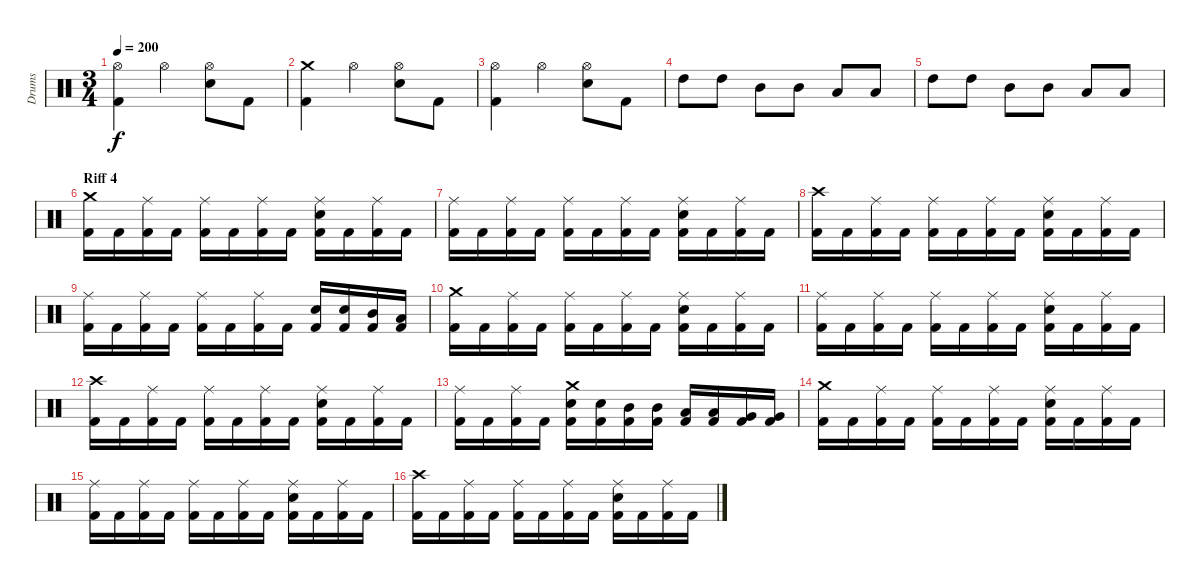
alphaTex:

\track ("Drums" "Drums") {instrument percussion}
\staff {score}
\articulation defaults
\ts (3 4)
\tempo 200
\clef neutral
\ks c
("Hi-Hat (open)" "Kick (hit) 2").4{dy f} "Hi-Hat (open)".4 ("Hi-Hat (open)" "Electric Snare (hit)").8 "Kick (hit) 2".8 |
("Crash medium (hit)" "Kick (hit) 2").4 "Hi-Hat (open)".4 ("Hi-Hat (open)" "Electric Snare (hit)").8 "Kick (hit) 2".8 |
("Hi-Hat (open)" "Kick (hit) 2").4 "Hi-Hat (open)".4 ("Hi-Hat (open)" "Electric Snare (hit)").8 "Kick (hit) 2".8 |
"High Tom (hit)".8 "High Tom (hit)".8 "Mid Tom (hit)".8 "Mid Tom (hit)".8 "Low Tom (hit)".8 "Low Tom (hit)".8 |
"High Tom (hit)".8 "High Tom (hit)".8 "Mid Tom (hit)".8 "Mid Tom (hit)".8 "Low Tom (hit)".8 "Low Tom (hit)".8 |
\section ("" "Riff 4")
("Crash medium (hit)" "Kick (hit) 2").16 "Kick (hit) 2".16 ("Ride (middle)" "Kick (hit) 2").16 "Kick (hit) 2".16 ("Ride (middle)" "Kick (hit) 2").16 "Kick (hit) 2".16 ("Ride (middle)" "Kick (hit) 2").16 "Kick (hit) 2".16 ("Ride (middle)" "Electric Snare (hit)" "Kick (hit) 2").16 "Kick (hit) 2".16 ("Ride (middle)" "Kick (hit) 2").16 "Kick (hit) 2".16 |
("Ride (middle)" "Kick (hit) 2").16 "Kick (hit) 2".16 ("Ride (middle)" "Kick (hit) 2").16 "Kick (hit) 2".16 ("Ride (middle)" "Kick (hit) 2").16 "Kick (hit) 2".16 ("Ride (middle)" "Kick (hit) 2").16 "Kick (hit) 2".16 ("Ride (middle)" "Electric Snare (hit)" "Kick (hit) 2").16 "Kick (hit) 2".16 ("Ride (middle)" "Kick (hit) 2").16 "Kick (hit) 2".16 |
("Crash high (hit)" "Kick (hit) 2").16 "Kick (hit) 2".16 ("Ride (middle)" "Kick (hit) 2").16 "Kick (hit) 2".16 ("Ride (middle)" "Kick (hit) 2").16 "Kick (hit) 2".16 ("Ride (middle)" "Kick (hit) 2").16 "Kick (hit) 2".16 ("Ride (middle)" "Electric Snare (hit)" "Kick (hit) 2").16 "Kick (hit) 2".16 ("Ride (middle)" "Kick (hit) 2").16 "Kick (hit) 2".16 |
("Ride (middle)" "Kick (hit) 2").16 "Kick (hit) 2".16 ("Ride (middle)" "Kick (hit) 2").16 "Kick (hit) 2".16 ("Ride (middle)" "Kick (hit) 2").16 "Kick (hit) 2".16 ("Ride (middle)" "Kick (hit) 2").16 "Kick (hit) 2".16 ("Electric Snare (hit)" "Kick (hit) 2").16 ("Electric Snare (hit)" "Kick (hit) 2").16 ("Mid Tom (hit)" "Kick (hit) 2").16 ("Low Tom (hit)" "Kick (hit) 2").16 |
("Crash medium (hit)" "Kick (hit) 2").16 "Kick (hit) 2".16 ("Ride (middle)" "Kick (hit) 2").16 "Kick (hit) 2".16 ("Ride (middle)" "Kick (hit) 2").16 "Kick (hit) 2".16 ("Ride (middle)" "Kick (hit) 2").16 "Kick (hit) 2".16 ("Ride (middle)" "Electric Snare (hit)" "Kick (hit) 2").16 "Kick (hit) 2".16 ("Ride (middle)" "Kick (hit) 2").16 "Kick (hit) 2".16 |
("Ride (middle)" "Kick (hit) 2").16 "Kick (hit) 2".16 ("Ride (middle)" "Kick (hit) 2").16 "Kick (hit) 2".16 ("Ride (middle)" "Kick (hit) 2").16 "Kick (hit) 2".16 ("Ride (middle)" "Kick (hit) 2").16 "Kick (hit) 2".16 ("Ride (middle)" "Electric Snare (hit)" "Kick (hit) 2").16 "Kick (hit) 2".16 ("Ride (middle)" "Kick (hit) 2").16 "Kick (hit) 2".16 |
("Crash high (hit)" "Kick (hit) 2").16 "Kick (hit) 2".16 ("Ride (middle)" "Kick (hit) 2").16 "Kick (hit) 2".16 ("Ride (middle)" "Kick (hit) 2").16 "Kick (hit) 2".16 ("Ride (middle)" "Kick (hit) 2").16 "Kick (hit) 2".16 ("Ride (middle)" "Electric Snare (hit)" "Kick (hit) 2").16 "Kick (hit) 2".16 ("Ride (middle)" "Kick (hit) 2").16 "Kick (hit) 2".16 |
("Ride (middle)" "Kick (hit) 2").16 "Kick (hit) 2".16 ("Ride (middle)" "Kick (hit) 2").16 "Kick (hit) 2".16 ("Crash medium (hit)" "Electric Snare (hit)" "Kick (hit) 2").16 ("Electric Snare (hit)" "Kick (hit) 2").16 ("Mid Tom (hit)" "Kick (hit) 2").16 ("Mid Tom (hit)" "Kick (hit) 2").16 ("Low Tom (hit)" "Kick (hit) 2").16 ("Low Tom (hit)" "Kick (hit) 2").16 ("Very Low Tom (hit)" "Kick (hit) 2").16 ("Very Low Tom (hit)" "Kick (hit) 2").16 |
("Crash medium (hit)" "Kick (hit) 2").16 "Kick (hit) 2".16 ("Ride (middle)" "Kick (hit) 2").16 "Kick (hit) 2".16 ("Ride (middle)" "Kick (hit) 2").16 "Kick (hit) 2".16 ("Ride (middle)" "Kick (hit) 2").16 "Kick (hit) 2".16 ("Ride (middle)" "Electric Snare (hit)" "Kick (hit) 2").16 "Kick (hit) 2".16 ("Ride (middle)" "Kick (hit) 2").16 "Kick (hit) 2".16 |
("Ride (middle)" "Kick (hit) 2").16 "Kick (hit) 2".16 ("Ride (middle)" "Kick (hit) 2").16 "Kick (hit) 2".16 ("Ride (middle)" "Kick (hit) 2").16 "Kick (hit) 2".16 ("Ride (middle)" "Kick (hit) 2").16 "Kick (hit) 2".16 ("Ride (middle)" "Electric Snare (hit)" "Kick (hit) 2").16 "Kick (hit) 2".16 ("Ride (middle)" "Kick (hit) 2").16 "Kick (hit) 2".16 |
("Crash high (hit)" "Kick (hit) 2").16 "Kick (hit) 2".16 ("Ride (middle)" "Kick (hit) 2").16 "Kick (hit) 2".16 ("Ride (middle)" "Kick (hit) 2").16 "Kick (hit) 2".16 ("Ride (middle)" "Kick (hit) 2").16 "Kick (hit) 2".16 ("Ride (middle)" "Electric Snare (hit)" "Kick (hit) 2").16 "Kick (hit) 2".16 ("Ride (middle)" "Kick (hit) 2").16 "Kick (hit) 2".16
